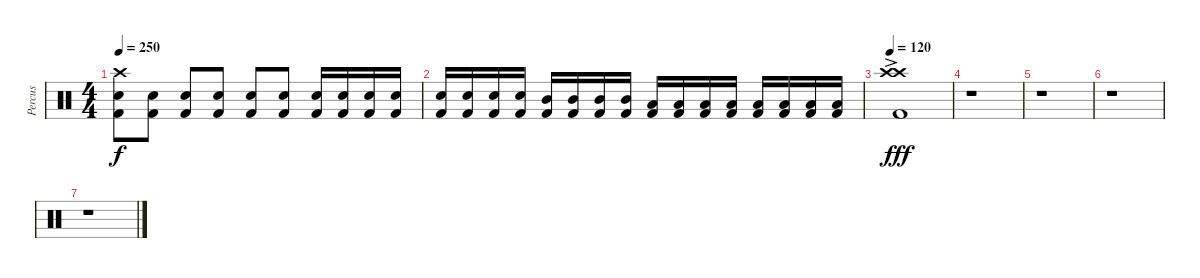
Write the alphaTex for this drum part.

\track ("Percus" "Percus") {instrument percussion}
\staff {score}
\articulation defaults
\ts (4 4)
\tempo 250
\clef neutral
\ks c
("Crash high (hit)" "Snare (hit) 2" "Kick (hit) 2").8{dy f} ("Snare (hit) 2" "Kick (hit) 2").8 ("Snare (hit) 2" "Kick (hit) 2").8 ("Snare (hit) 2" "Kick (hit) 2").8 ("Snare (hit) 2" "Kick (hit) 2").8 ("Snare (hit) 2" "Kick (hit) 2").8 ("Snare (hit) 2" "Kick (hit) 2").16 ("Snare (hit) 2" "Kick (hit) 2").16 ("Snare (hit) 2" "Kick (hit) 2").16 ("Snare (hit) 2" "Kick (hit) 2").16 |
("Snare (hit) 2" "Kick (hit) 2").16 ("Snare (hit) 2" "Kick (hit) 2").16 ("Snare (hit) 2" "Kick (hit) 2").16 ("Snare (hit) 2" "Kick (hit) 2").16 ("Mid Tom (hit)" "Kick (hit) 2").16 ("Mid Tom (hit)" "Kick (hit) 2").16 ("Mid Tom (hit)" "Kick (hit) 2").16 ("Mid Tom (hit)" "Kick (hit) 2").16 ("Low Tom (hit)" "Kick (hit) 2").16 ("Low Tom (hit)" "Kick (hit) 2").16 ("Low Tom (hit)" "Kick (hit) 2").16 ("Low Tom (hit)" "Kick (hit) 2").16 ("Low Floor Tom (hit)" "Kick (hit) 2").16 ("Low Floor Tom (hit)" "Kick (hit) 2").16 ("Low Floor Tom (hit)" "Kick (hit) 2").16 ("Low Floor Tom (hit)" "Kick (hit) 2").16 |
\tempo 120
("Crash high (hit)"{ac} "Crash high (hit)" "Kick (hit) 2").1{dy fff} |
r.1 |
r.1 |
r.1 |
r.1
